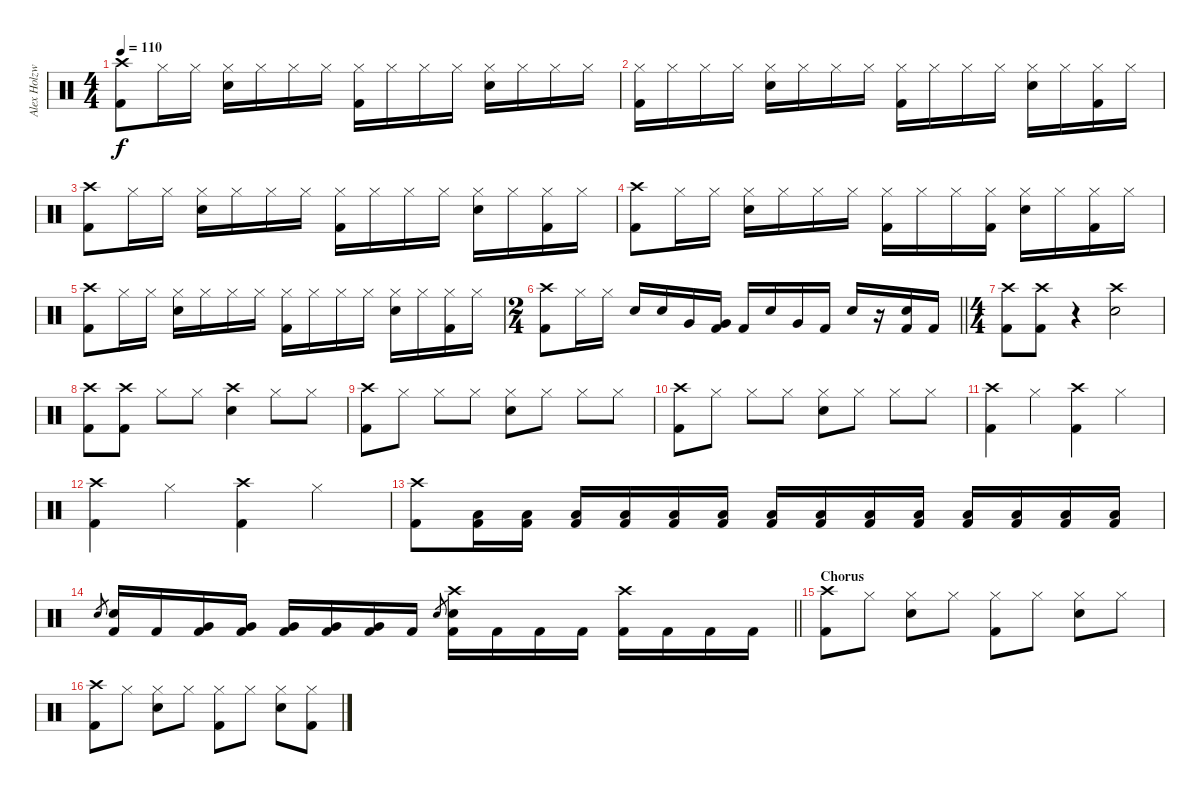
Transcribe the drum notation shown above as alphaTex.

\track ("Alex Holzwarth (Drums)" "Alex Holzw") {instrument percussion}
\staff {score}
\articulation defaults
\ts (4 4)
\tempo 110
\clef neutral
\ks c
("Crash high (hit)" "Kick (hit) 2").8{dy f} "Hi-Hat (closed)".16 "Hi-Hat (closed)".16 ("Hi-Hat (closed)" "Electric Snare (hit)").16 "Hi-Hat (closed)".16 "Hi-Hat (closed)".16 "Hi-Hat (closed)".16 ("Hi-Hat (closed)" "Kick (hit) 2").16 "Hi-Hat (closed)".16 "Hi-Hat (closed)".16 "Hi-Hat (closed)".16 ("Hi-Hat (closed)" "Electric Snare (hit)").16 "Hi-Hat (closed)".16 "Hi-Hat (closed)".16 "Hi-Hat (closed)".16 |
("Hi-Hat (closed)" "Kick (hit) 2").16 "Hi-Hat (closed)".16 "Hi-Hat (closed)".16 "Hi-Hat (closed)".16 ("Hi-Hat (closed)" "Electric Snare (hit)").16 "Hi-Hat (closed)".16 "Hi-Hat (closed)".16 "Hi-Hat (closed)".16 ("Hi-Hat (closed)" "Kick (hit) 2").16 "Hi-Hat (closed)".16 "Hi-Hat (closed)".16 "Hi-Hat (closed)".16 ("Hi-Hat (closed)" "Electric Snare (hit)").16 "Hi-Hat (closed)".16 ("Hi-Hat (closed)" "Kick (hit) 2").16 "Hi-Hat (closed)".16 |
("Crash high (hit)" "Kick (hit) 2").8 "Hi-Hat (closed)".16 "Hi-Hat (closed)".16 ("Hi-Hat (closed)" "Electric Snare (hit)").16 "Hi-Hat (closed)".16 "Hi-Hat (closed)".16 "Hi-Hat (closed)".16 ("Hi-Hat (closed)" "Kick (hit) 2").16 "Hi-Hat (closed)".16 "Hi-Hat (closed)".16 "Hi-Hat (closed)".16 ("Hi-Hat (closed)" "Electric Snare (hit)").16 "Hi-Hat (closed)".16 ("Hi-Hat (closed)" "Kick (hit) 2").16 "Hi-Hat (closed)".16 |
("Crash high (hit)" "Kick (hit) 2").8 "Hi-Hat (closed)".16 "Hi-Hat (closed)".16 ("Hi-Hat (closed)" "Electric Snare (hit)").16 "Hi-Hat (closed)".16 "Hi-Hat (closed)".16 "Hi-Hat (closed)".16 ("Hi-Hat (closed)" "Kick (hit) 2").16 "Hi-Hat (closed)".16 "Hi-Hat (closed)".16 ("Hi-Hat (closed)" "Kick (hit) 2").16 ("Hi-Hat (closed)" "Electric Snare (hit)").16 "Hi-Hat (closed)".16 ("Hi-Hat (closed)" "Kick (hit) 2").16 "Hi-Hat (closed)".16 |
("Crash high (hit)" "Kick (hit) 2").8 "Hi-Hat (closed)".16 "Hi-Hat (closed)".16 ("Hi-Hat (closed)" "Electric Snare (hit)").16 "Hi-Hat (closed)".16 "Hi-Hat (closed)".16 "Hi-Hat (closed)".16 ("Hi-Hat (closed)" "Kick (hit) 2").16 "Hi-Hat (closed)".16 "Hi-Hat (closed)".16 "Hi-Hat (closed)".16 ("Hi-Hat (closed)" "Electric Snare (hit)").16 "Hi-Hat (closed)".16 ("Hi-Hat (closed)" "Kick (hit) 2").16 "Hi-Hat (closed)".16 |
\ts (2 4)
\barLineRight lightlight
("Crash high (hit)" "Kick (hit) 2").8 "Hi-Hat (closed)".16 "Hi-Hat (closed)".16 "Electric Snare (hit)".16 "Electric Snare (hit)".16 "Very Low Tom (hit)".16 ("Very Low Tom (hit)" "Kick (hit) 2").16 "Kick (hit) 2".16 "Electric Snare (hit)".16 "Very Low Tom (hit)".16 "Kick (hit) 2".16 "Electric Snare (hit)".16 r.16 ("Electric Snare (hit)" "Kick (hit) 2").16 "Kick (hit) 2".16 |
\ts (4 4)
("Crash high (hit)" "Kick (hit) 2").8 ("Crash high (hit)" "Kick (hit) 2").8 r.4 ("Crash high (hit)" "Electric Snare (hit)").2 |
("Crash high (hit)" "Kick (hit) 2").8 ("Crash high (hit)" "Kick (hit) 2").8 "Hi-Hat (closed)".8 "Hi-Hat (closed)".8 ("Crash high (hit)" "Electric Snare (hit)").4 "Hi-Hat (closed)".8 "Hi-Hat (closed)".8 |
("Crash high (hit)" "Kick (hit) 2").8 "Hi-Hat (closed)".8 "Hi-Hat (closed)".8 "Hi-Hat (closed)".8 ("Hi-Hat (closed)" "Electric Snare (hit)").8 "Hi-Hat (closed)".8 "Hi-Hat (closed)".8 "Hi-Hat (closed)".8 |
("Crash high (hit)" "Kick (hit) 2").8 "Hi-Hat (closed)".8 "Hi-Hat (closed)".8 "Hi-Hat (closed)".8 ("Hi-Hat (closed)" "Electric Snare (hit)").8 "Hi-Hat (closed)".8 "Hi-Hat (closed)".8 "Hi-Hat (closed)".8 |
("Crash high (hit)" "Kick (hit) 2").4 "Hi-Hat (closed)".4 ("Crash high (hit)" "Kick (hit) 2").4 "Hi-Hat (closed)".4 |
("Crash high (hit)" "Kick (hit) 2").4 "Hi-Hat (closed)".4 ("Crash high (hit)" "Kick (hit) 2").4 "Hi-Hat (closed)".4 |
("Crash high (hit)" "Kick (hit) 2").8 ("Low Tom (hit)" "Kick (hit) 2").16 ("Low Tom (hit)" "Kick (hit) 2").16 ("Low Tom (hit)" "Kick (hit) 2").16 ("Low Tom (hit)" "Kick (hit) 2").16 ("Low Tom (hit)" "Kick (hit) 2").16 ("Low Tom (hit)" "Kick (hit) 2").16 ("Low Tom (hit)" "Kick (hit) 2").16 ("Low Tom (hit)" "Kick (hit) 2").16 ("Low Tom (hit)" "Kick (hit) 2").16 ("Low Tom (hit)" "Kick (hit) 2").16 ("Low Tom (hit)" "Kick (hit) 2").16 ("Low Tom (hit)" "Kick (hit) 2").16 ("Low Tom (hit)" "Kick (hit) 2").16 ("Low Tom (hit)" "Kick (hit) 2").16 |
\barLineRight lightlight "Electric Snare (hit)".8{gr}
("Electric Snare (hit)" "Kick (hit) 2").16 "Kick (hit) 2".16 ("Very Low Tom (hit)" "Kick (hit) 2").16 ("Very Low Tom (hit)" "Kick (hit) 2").16 ("Very Low Tom (hit)" "Kick (hit) 2").16 ("Very Low Tom (hit)" "Kick (hit) 2").16 ("Very Low Tom (hit)" "Kick (hit) 2").16 "Kick (hit) 2".16 "Electric Snare (hit)".8{gr} ("Crash high (hit)" "Electric Snare (hit)" "Kick (hit) 2").16 "Kick (hit) 2".16 "Kick (hit) 2".16 "Kick (hit) 2".16 ("Crash high (hit)" "Kick (hit) 2").16 "Kick (hit) 2".16 "Kick (hit) 2".16 "Kick (hit) 2".16 |
\section ("" "Chorus")
("Crash high (hit)" "Kick (hit) 2").8 "Hi-Hat (closed)".8 ("Hi-Hat (closed)" "Electric Snare (hit)").8 "Hi-Hat (closed)".8 ("Hi-Hat (closed)" "Kick (hit) 2").8 "Hi-Hat (closed)".8 ("Hi-Hat (closed)" "Electric Snare (hit)").8 "Hi-Hat (closed)".8 |
("Crash high (hit)" "Kick (hit) 2").8 "Hi-Hat (closed)".8 ("Hi-Hat (closed)" "Electric Snare (hit)").8 "Hi-Hat (closed)".8 ("Hi-Hat (closed)" "Kick (hit) 2").8 "Hi-Hat (closed)".8 ("Hi-Hat (closed)" "Electric Snare (hit)").8 ("Hi-Hat (closed)" "Kick (hit) 2").8
